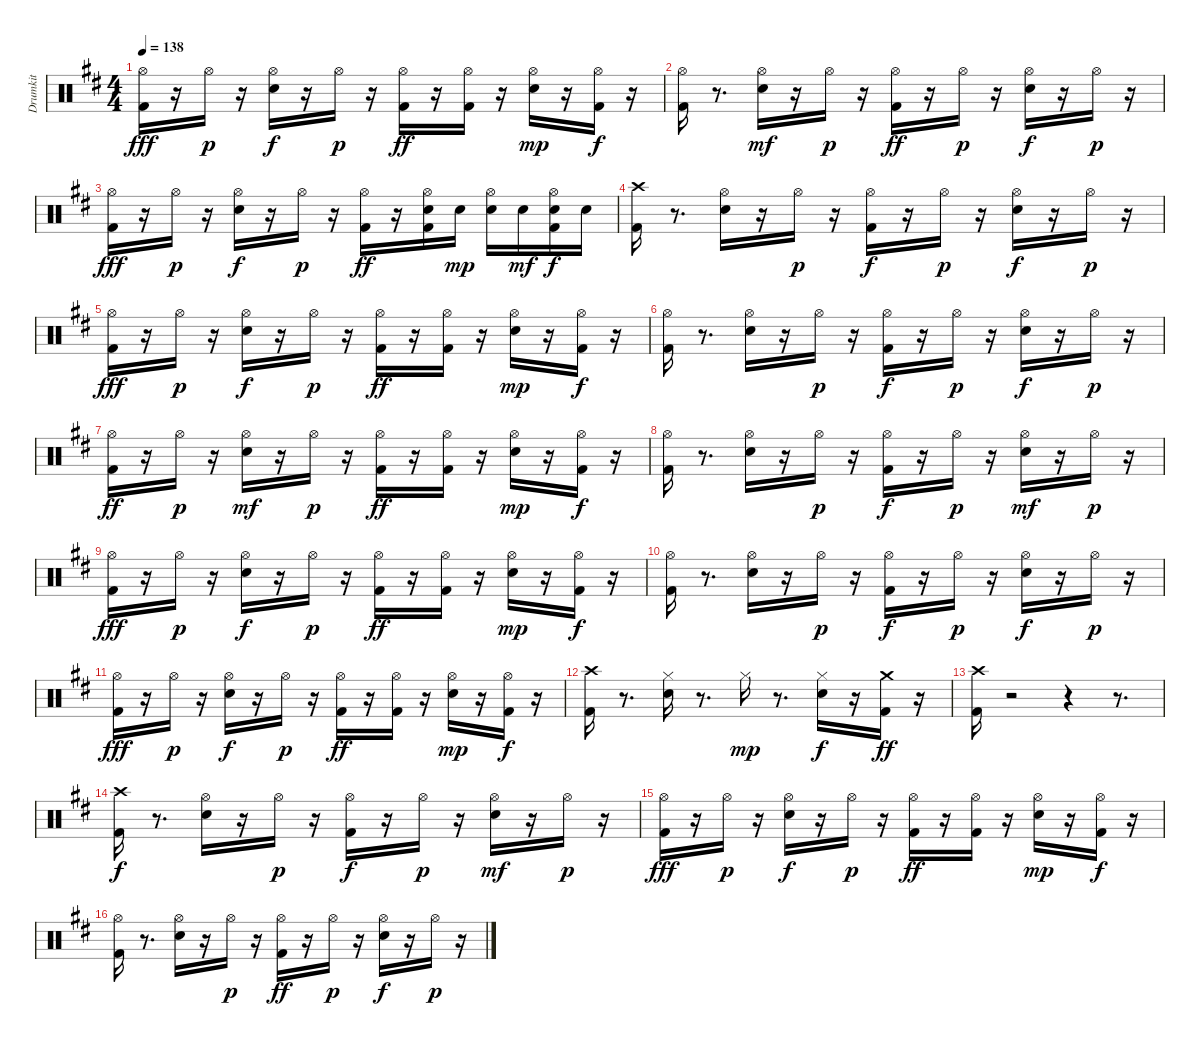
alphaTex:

\track ("Drumkit" "Drumkit") {instrument percussion}
\staff {score}
\articulation defaults
\ts (4 4)
\tempo 138
\clef neutral
\ks d
("Kick (hit) 2" "Hi-Hat (open)").16{dy fff} r.16 "Hi-Hat (open)".16{dy p} r.16 ("Snare (hit) 2" "Hi-Hat (open)").16{dy f} r.16 "Hi-Hat (open)".16{dy p} r.16 ("Kick (hit) 2" "Hi-Hat (open)").16{dy ff} r.16 ("Kick (hit) 2" "Hi-Hat (open)").16 r.16 ("Snare (hit) 2" "Hi-Hat (open)").16{dy mp} r.16 ("Kick (hit) 2" "Hi-Hat (open)").16{dy f} r.16 |
("Kick (hit) 2" "Hi-Hat (open)").16 r.8{d} ("Snare (hit) 2" "Hi-Hat (open)").16{dy mf} r.16 "Hi-Hat (open)".16{dy p} r.16 ("Kick (hit) 2" "Hi-Hat (open)").16{dy ff} r.16 "Hi-Hat (open)".16{dy p} r.16 ("Snare (hit) 2" "Hi-Hat (open)").16{dy f} r.16 "Hi-Hat (open)".16{dy p} r.16 |
("Kick (hit) 2" "Hi-Hat (open)").16{dy fff} r.16 "Hi-Hat (open)".16{dy p} r.16 ("Snare (hit) 2" "Hi-Hat (open)").16{dy f} r.16 "Hi-Hat (open)".16{dy p} r.16 ("Kick (hit) 2" "Hi-Hat (open)").16{dy ff} r.16 ("Kick (hit) 2" "Snare (hit) 2" "Hi-Hat (open)").16 "Snare (hit) 2".16{dy mp} ("Snare (hit) 2" "Hi-Hat (open)").16 "Snare (hit) 2".16{dy mf} ("Kick (hit) 2" "Snare (hit) 2" "Hi-Hat (open)").16{dy f} "Snare (hit) 2".16 |
("Kick (hit) 2" "Crash high (hit)").16 r.8{d} ("Snare (hit) 2" "Hi-Hat (open)").16 r.16 "Hi-Hat (open)".16{dy p} r.16 ("Kick (hit) 2" "Hi-Hat (open)").16{dy f} r.16 "Hi-Hat (open)".16{dy p} r.16 ("Snare (hit) 2" "Hi-Hat (open)").16{dy f} r.16 "Hi-Hat (open)".16{dy p} r.16 |
("Kick (hit) 2" "Hi-Hat (open)").16{dy fff} r.16 "Hi-Hat (open)".16{dy p} r.16 ("Snare (hit) 2" "Hi-Hat (open)").16{dy f} r.16 "Hi-Hat (open)".16{dy p} r.16 ("Kick (hit) 2" "Hi-Hat (open)").16{dy ff} r.16 ("Kick (hit) 2" "Hi-Hat (open)").16 r.16 ("Snare (hit) 2" "Hi-Hat (open)").16{dy mp} r.16 ("Kick (hit) 2" "Hi-Hat (open)").16{dy f} r.16 |
("Kick (hit) 2" "Hi-Hat (open)").16 r.8{d} ("Snare (hit) 2" "Hi-Hat (open)").16 r.16 "Hi-Hat (open)".16{dy p} r.16 ("Kick (hit) 2" "Hi-Hat (open)").16{dy f} r.16 "Hi-Hat (open)".16{dy p} r.16 ("Snare (hit) 2" "Hi-Hat (open)").16{dy f} r.16 "Hi-Hat (open)".16{dy p} r.16 |
("Kick (hit) 2" "Hi-Hat (open)").16{dy ff} r.16 "Hi-Hat (open)".16{dy p} r.16 ("Snare (hit) 2" "Hi-Hat (open)").16{dy mf} r.16 "Hi-Hat (open)".16{dy p} r.16 ("Kick (hit) 2" "Hi-Hat (open)").16{dy ff} r.16 ("Kick (hit) 2" "Hi-Hat (open)").16 r.16 ("Snare (hit) 2" "Hi-Hat (open)").16{dy mp} r.16 ("Kick (hit) 2" "Hi-Hat (open)").16{dy f} r.16 |
("Kick (hit) 2" "Hi-Hat (open)").16 r.8{d} ("Snare (hit) 2" "Hi-Hat (open)").16 r.16 "Hi-Hat (open)".16{dy p} r.16 ("Kick (hit) 2" "Hi-Hat (open)").16{dy f} r.16 "Hi-Hat (open)".16{dy p} r.16 ("Snare (hit) 2" "Hi-Hat (open)").16{dy mf} r.16 "Hi-Hat (open)".16{dy p} r.16 |
("Kick (hit) 2" "Hi-Hat (open)").16{dy fff} r.16 "Hi-Hat (open)".16{dy p} r.16 ("Snare (hit) 2" "Hi-Hat (open)").16{dy f} r.16 "Hi-Hat (open)".16{dy p} r.16 ("Kick (hit) 2" "Hi-Hat (open)").16{dy ff} r.16 ("Kick (hit) 2" "Hi-Hat (open)").16 r.16 ("Snare (hit) 2" "Hi-Hat (open)").16{dy mp} r.16 ("Kick (hit) 2" "Hi-Hat (open)").16{dy f} r.16 |
("Kick (hit) 2" "Hi-Hat (open)").16 r.8{d} ("Snare (hit) 2" "Hi-Hat (open)").16 r.16 "Hi-Hat (open)".16{dy p} r.16 ("Kick (hit) 2" "Hi-Hat (open)").16{dy f} r.16 "Hi-Hat (open)".16{dy p} r.16 ("Snare (hit) 2" "Hi-Hat (open)").16{dy f} r.16 "Hi-Hat (open)".16{dy p} r.16 |
("Kick (hit) 2" "Hi-Hat (open)").16{dy fff} r.16 "Hi-Hat (open)".16{dy p} r.16 ("Snare (hit) 2" "Hi-Hat (open)").16{dy f} r.16 "Hi-Hat (open)".16{dy p} r.16 ("Kick (hit) 2" "Hi-Hat (open)").16{dy ff} r.16 ("Kick (hit) 2" "Hi-Hat (open)").16 r.16 ("Snare (hit) 2" "Hi-Hat (open)").16{dy mp} r.16 ("Kick (hit) 2" "Hi-Hat (open)").16{dy f} r.16 |
("Kick (hit) 2" "Crash high (hit)").16 r.8{d} ("Snare (hit) 2" "Hi-Hat (closed)").16 r.8{d} "Hi-Hat (closed)".16{dy mp} r.8{d} ("Snare (hit) 2" "Hi-Hat (closed)").16{dy f} r.16 ("Kick (hit) 2" "Crash medium (hit)").16{dy ff} r.16 |
("Kick (hit) 2" "Crash high (hit)").16 r.2 r.4 r.8{d} |
("Kick (hit) 2" "Crash high (hit)").16{dy f} r.8{d} ("Snare (hit) 2" "Hi-Hat (open)").16 r.16 "Hi-Hat (open)".16{dy p} r.16 ("Kick (hit) 2" "Hi-Hat (open)").16{dy f} r.16 "Hi-Hat (open)".16{dy p} r.16 ("Snare (hit) 2" "Hi-Hat (open)").16{dy mf} r.16 "Hi-Hat (open)".16{dy p} r.16 |
("Kick (hit) 2" "Hi-Hat (open)").16{dy fff} r.16 "Hi-Hat (open)".16{dy p} r.16 ("Snare (hit) 2" "Hi-Hat (open)").16{dy f} r.16 "Hi-Hat (open)".16{dy p} r.16 ("Kick (hit) 2" "Hi-Hat (open)").16{dy ff} r.16 ("Kick (hit) 2" "Hi-Hat (open)").16 r.16 ("Snare (hit) 2" "Hi-Hat (open)").16{dy mp} r.16 ("Kick (hit) 2" "Hi-Hat (open)").16{dy f} r.16 |
("Kick (hit) 2" "Hi-Hat (open)").16 r.8{d} ("Snare (hit) 2" "Hi-Hat (open)").16 r.16 "Hi-Hat (open)".16{dy p} r.16 ("Kick (hit) 2" "Hi-Hat (open)").16{dy ff} r.16 "Hi-Hat (open)".16{dy p} r.16 ("Snare (hit) 2" "Hi-Hat (open)").16{dy f} r.16 "Hi-Hat (open)".16{dy p} r.16
